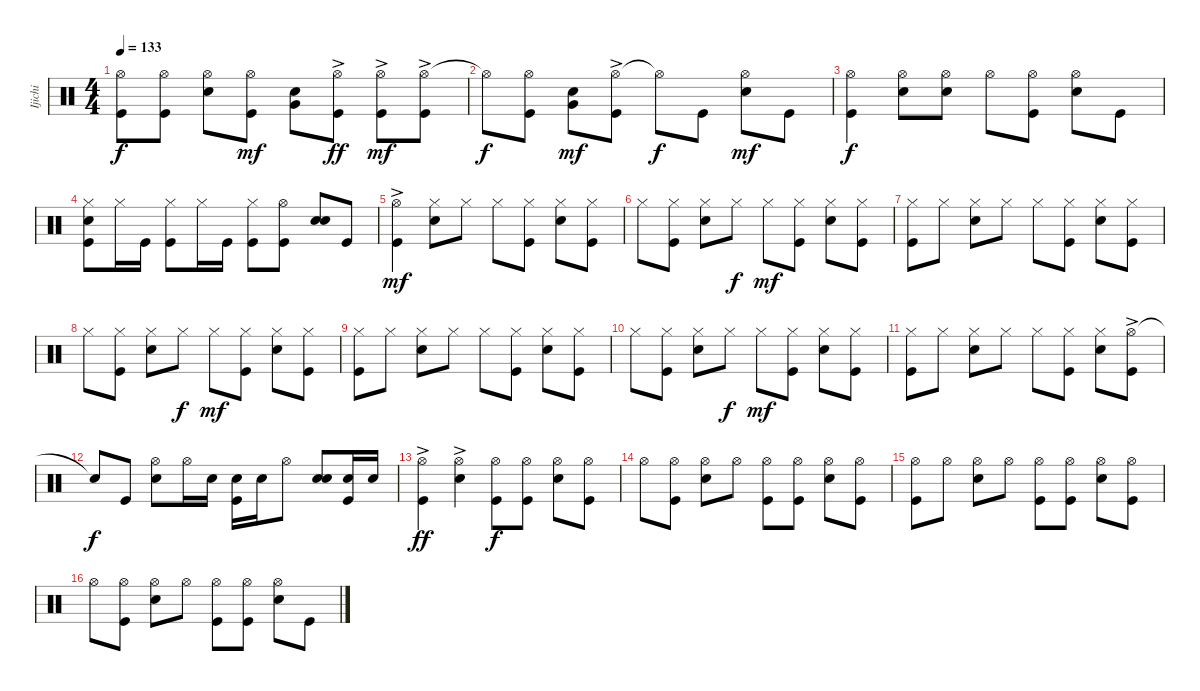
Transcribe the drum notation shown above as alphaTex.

\track ("Ijichi" "Ijichi") {instrument percussion}
\staff {score}
\articulation defaults
\ts (4 4)
\tempo 133
\clef neutral
\ks c
("Hi-Hat (open)" "Kick (hit)").8{dy f} ("Hi-Hat (open)" "Kick (hit)").8 ("Hi-Hat (open)" "Snare (hit) 2").8 ("Hi-Hat (open)" "Kick (hit)").8{dy mf} ("Snare (hit) 2" "Very Low Tom (hit)").8 ("Hi-Hat (open)"{ac} "Kick (hit)").8{dy ff} ("Hi-Hat (open)"{ac} "Kick (hit)").8{dy mf} ("Hi-Hat (open)"{ac} "Kick (hit)").8 |
"Hi-Hat (open)"{t}.8{dy f} ("Hi-Hat (open)" "Kick (hit)").8 ("Snare (hit) 2" "Very Low Tom (hit)").8{dy mf} ("Hi-Hat (open)"{ac} "Kick (hit)").8 "Hi-Hat (open)"{t}.8{dy f} "Kick (hit)".8 ("Hi-Hat (open)" "Snare (hit) 2").8{dy mf} "Kick (hit)".8 |
("Hi-Hat (open)" "Kick (hit)").4{dy f} ("Hi-Hat (open)" "Snare (hit) 2").8 ("Hi-Hat (open)" "Snare (hit) 2").8 "Hi-Hat (open)".8 ("Hi-Hat (open)" "Kick (hit)").8 ("Hi-Hat (open)" "Snare (hit) 2").8 "Kick (hit)".8 |
("Hi-Hat (closed)" "Snare (hit) 2" "Kick (hit)").8 "Hi-Hat (closed)".16 "Kick (hit)".16 ("Hi-Hat (closed)" "Kick (hit)").8 "Hi-Hat (closed)".16 "Kick (hit)".16 ("Hi-Hat (closed)" "Kick (hit)").8 ("Hi-Hat (open)" "Kick (hit)").8 ("Snare (hit) 2" "Snare (hit) 2").8 "Kick (hit)".8 |
("Hi-Hat (open)"{ac} "Kick (hit)").4{dy mf} ("Hi-Hat (closed)" "Snare (hit) 2").8 "Hi-Hat (closed)".8 "Hi-Hat (closed)".8 ("Hi-Hat (closed)" "Kick (hit)").8 ("Hi-Hat (closed)" "Snare (hit) 2").8 ("Hi-Hat (closed)" "Kick (hit)").8 |
"Hi-Hat (closed)".8 ("Hi-Hat (closed)" "Kick (hit)").8 ("Hi-Hat (closed)" "Snare (hit) 2").8 "Hi-Hat (closed)".8{dy f} "Hi-Hat (closed)".8{dy mf} ("Hi-Hat (closed)" "Kick (hit)").8 ("Hi-Hat (closed)" "Snare (hit) 2").8 ("Hi-Hat (closed)" "Kick (hit)").8 |
("Hi-Hat (closed)" "Kick (hit)").8 "Hi-Hat (closed)".8 ("Hi-Hat (closed)" "Snare (hit) 2").8 "Hi-Hat (closed)".8 "Hi-Hat (closed)".8 ("Hi-Hat (closed)" "Kick (hit)").8 ("Hi-Hat (closed)" "Snare (hit) 2").8 ("Hi-Hat (closed)" "Kick (hit)").8 |
"Hi-Hat (closed)".8 ("Hi-Hat (closed)" "Kick (hit)").8 ("Hi-Hat (closed)" "Snare (hit) 2").8 "Hi-Hat (closed)".8{dy f} "Hi-Hat (closed)".8{dy mf} ("Hi-Hat (closed)" "Kick (hit)").8 ("Hi-Hat (closed)" "Snare (hit) 2").8 ("Hi-Hat (closed)" "Kick (hit)").8 |
("Hi-Hat (closed)" "Kick (hit)").8 "Hi-Hat (closed)".8 ("Hi-Hat (closed)" "Snare (hit) 2").8 "Hi-Hat (closed)".8 "Hi-Hat (closed)".8 ("Hi-Hat (closed)" "Kick (hit)").8 ("Hi-Hat (closed)" "Snare (hit) 2").8 ("Hi-Hat (closed)" "Kick (hit)").8 |
"Hi-Hat (closed)".8 ("Hi-Hat (closed)" "Kick (hit)").8 ("Hi-Hat (closed)" "Snare (hit) 2").8 "Hi-Hat (closed)".8{dy f} "Hi-Hat (closed)".8{dy mf} ("Hi-Hat (closed)" "Kick (hit)").8 ("Hi-Hat (closed)" "Snare (hit) 2").8 ("Hi-Hat (closed)" "Kick (hit)").8 |
("Hi-Hat (closed)" "Kick (hit)").8 "Hi-Hat (closed)".8 ("Hi-Hat (closed)" "Snare (hit) 2").8 "Hi-Hat (closed)".8 "Hi-Hat (closed)".8 ("Hi-Hat (closed)" "Kick (hit)").8 ("Hi-Hat (closed)" "Snare (hit) 2").8 ("Hi-Hat (open)"{ac} "Kick (hit)").8 |
"Snare (hit)"{t}.8{dy f} "Kick (hit)".8 ("Hi-Hat (open)" "Snare (hit) 2").8 "Hi-Hat (open)".16 "Snare (hit) 2".16 ("Snare (hit) 2" "Kick (hit)").16 "Snare (hit) 2".16 "Hi-Hat (open)".8 ("Snare (hit) 2" "Snare (hit) 2").8 ("Snare (hit) 2" "Kick (hit)").16 "Snare (hit) 2".16 |
("Hi-Hat (open)"{ac} "Kick (hit)").4{dy ff} ("Hi-Hat (open)"{ac} "Snare (hit) 2").4 ("Hi-Hat (open)" "Kick (hit)").8{dy f} ("Hi-Hat (open)" "Kick (hit)").8 ("Hi-Hat (open)" "Snare (hit) 2").8 ("Hi-Hat (open)" "Kick (hit)").8 |
"Hi-Hat (open)".8 ("Hi-Hat (open)" "Kick (hit)").8 ("Hi-Hat (open)" "Snare (hit) 2").8 "Hi-Hat (open)".8 ("Hi-Hat (open)" "Kick (hit)").8 ("Hi-Hat (open)" "Kick (hit)").8 ("Hi-Hat (open)" "Snare (hit) 2").8 ("Hi-Hat (open)" "Kick (hit)").8 |
("Hi-Hat (open)" "Kick (hit)").8 "Hi-Hat (open)".8 ("Hi-Hat (open)" "Snare (hit) 2").8 "Hi-Hat (open)".8 ("Hi-Hat (open)" "Kick (hit)").8 ("Hi-Hat (open)" "Kick (hit)").8 ("Hi-Hat (open)" "Snare (hit) 2").8 ("Hi-Hat (open)" "Kick (hit)").8 |
"Hi-Hat (open)".8 ("Hi-Hat (open)" "Kick (hit)").8 ("Hi-Hat (open)" "Snare (hit) 2").8 "Hi-Hat (open)".8 ("Hi-Hat (open)" "Kick (hit)").8 ("Hi-Hat (open)" "Kick (hit)").8 ("Hi-Hat (open)" "Snare (hit) 2").8 "Kick (hit)".8
